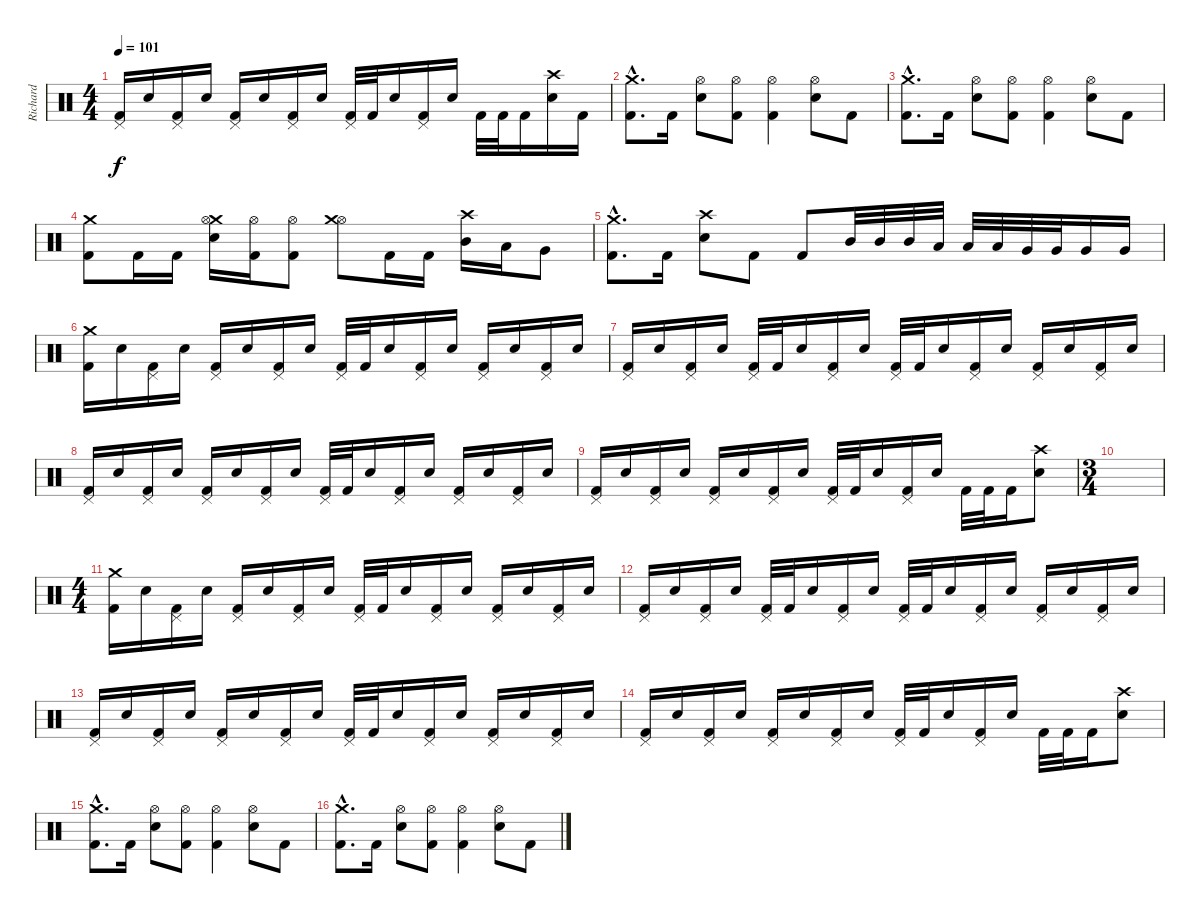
\track ("Richard" "Richard") {instrument percussion}
\staff {score}
\articulation defaults
\ts (4 4)
\tempo 101
\clef neutral
\ks c
("Pedal Hi-Hat (hit)" "Kick (hit) 2").16{dy f} "Electric Snare (hit)".16 ("Pedal Hi-Hat (hit)" "Kick (hit) 2").16 "Electric Snare (hit)".16 ("Pedal Hi-Hat (hit)" "Kick (hit) 2").16 "Electric Snare (hit)".16 ("Pedal Hi-Hat (hit)" "Kick (hit) 2").16 "Electric Snare (hit)".16 ("Pedal Hi-Hat (hit)" "Kick (hit) 2").32 "Kick (hit) 2".32 "Electric Snare (hit)".16 ("Pedal Hi-Hat (hit)" "Kick (hit) 2").16 "Electric Snare (hit)".16 "Kick (hit) 2".32 "Kick (hit) 2".32 "Kick (hit) 2".16 ("Crash high (hit)" "Electric Snare (hit)").16 "Kick (hit) 2".16 |
("Crash medium (hit)"{hac} "Kick (hit) 2"{hac}).8{d} "Kick (hit) 2".16 ("Hi-Hat (open)" "Electric Snare (hit)").8 ("Hi-Hat (open)" "Kick (hit) 2").8 ("Hi-Hat (open)" "Kick (hit) 2").4 ("Hi-Hat (open)" "Electric Snare (hit)").8 "Kick (hit) 2".8 |
("Crash medium (hit)"{hac} "Kick (hit) 2"{hac}).8{d} "Kick (hit) 2".16 ("Hi-Hat (open)" "Electric Snare (hit)").8 ("Hi-Hat (open)" "Kick (hit) 2").8 ("Hi-Hat (open)" "Kick (hit) 2").4 ("Hi-Hat (open)" "Electric Snare (hit)").8 "Kick (hit) 2".8 |
("Crash medium (hit)" "Kick (hit) 2").8 "Kick (hit) 2".16 "Kick (hit) 2".16 ("Crash medium (hit)" "Hi-Hat (open)" "Electric Snare (hit)").16 ("Hi-Hat (open)" "Kick (hit) 2").16 ("Hi-Hat (open)" "Kick (hit) 2").8 ("Hi-Hat (open)" "Crash medium (hit)").8 "Kick (hit) 2".16 "Kick (hit) 2".16 ("Crash high (hit)" "Mid Tom (hit)").16 "Low Tom (hit)".16 "Very Low Tom (hit)".8 |
("Crash medium (hit)"{hac} "Kick (hit) 2"{hac}).8{d} "Kick (hit) 2".16 ("Crash high (hit)" "Electric Snare (hit)").8 "Kick (hit) 2".8 "Kick (hit) 2".8 "Mid Tom (hit)".32 "Mid Tom (hit)".32 "Mid Tom (hit)".32 "Low Tom (hit)".32 "Low Tom (hit)".32 "Low Tom (hit)".32 "Very Low Tom (hit)".32 "Very Low Tom (hit)".32 "Very Low Tom (hit)".16 "Very Low Tom (hit)".16 |
("Crash medium (hit)" "Kick (hit) 2").16 "Electric Snare (hit)".16 ("Pedal Hi-Hat (hit)" "Kick (hit) 2").16 "Electric Snare (hit)".16 ("Pedal Hi-Hat (hit)" "Kick (hit) 2").16 "Electric Snare (hit)".16 ("Pedal Hi-Hat (hit)" "Kick (hit) 2").16 "Electric Snare (hit)".16 ("Pedal Hi-Hat (hit)" "Kick (hit) 2").32 "Kick (hit) 2".32 "Electric Snare (hit)".16 ("Pedal Hi-Hat (hit)" "Kick (hit) 2").16 "Electric Snare (hit)".16 ("Pedal Hi-Hat (hit)" "Kick (hit) 2").16 "Electric Snare (hit)".16 ("Pedal Hi-Hat (hit)" "Kick (hit) 2").16 "Electric Snare (hit)".16 |
("Pedal Hi-Hat (hit)" "Kick (hit) 2").16 "Electric Snare (hit)".16 ("Pedal Hi-Hat (hit)" "Kick (hit) 2").16 "Electric Snare (hit)".16 ("Pedal Hi-Hat (hit)" "Kick (hit) 2").32 "Kick (hit) 2".32 "Electric Snare (hit)".16 ("Pedal Hi-Hat (hit)" "Kick (hit) 2").16 "Electric Snare (hit)".16 ("Pedal Hi-Hat (hit)" "Kick (hit) 2").32 "Kick (hit) 2".32 "Electric Snare (hit)".16 ("Pedal Hi-Hat (hit)" "Kick (hit) 2").16 "Electric Snare (hit)".16 ("Pedal Hi-Hat (hit)" "Kick (hit) 2").16 "Electric Snare (hit)".16 ("Pedal Hi-Hat (hit)" "Kick (hit) 2").16 "Electric Snare (hit)".16 |
("Pedal Hi-Hat (hit)" "Kick (hit) 2").16 "Electric Snare (hit)".16 ("Pedal Hi-Hat (hit)" "Kick (hit) 2").16 "Electric Snare (hit)".16 ("Pedal Hi-Hat (hit)" "Kick (hit) 2").16 "Electric Snare (hit)".16 ("Pedal Hi-Hat (hit)" "Kick (hit) 2").16 "Electric Snare (hit)".16 ("Pedal Hi-Hat (hit)" "Kick (hit) 2").32 "Kick (hit) 2".32 "Electric Snare (hit)".16 ("Pedal Hi-Hat (hit)" "Kick (hit) 2").16 "Electric Snare (hit)".16 ("Pedal Hi-Hat (hit)" "Kick (hit) 2").16 "Electric Snare (hit)".16 ("Pedal Hi-Hat (hit)" "Kick (hit) 2").16 "Electric Snare (hit)".16 |
("Pedal Hi-Hat (hit)" "Kick (hit) 2").16 "Electric Snare (hit)".16 ("Pedal Hi-Hat (hit)" "Kick (hit) 2").16 "Electric Snare (hit)".16 ("Pedal Hi-Hat (hit)" "Kick (hit) 2").16 "Electric Snare (hit)".16 ("Pedal Hi-Hat (hit)" "Kick (hit) 2").16 "Electric Snare (hit)".16 ("Pedal Hi-Hat (hit)" "Kick (hit) 2").32 "Kick (hit) 2".32 "Electric Snare (hit)".16 ("Pedal Hi-Hat (hit)" "Kick (hit) 2").16 "Electric Snare (hit)".16 "Kick (hit) 2".32 "Kick (hit) 2".32 "Kick (hit) 2".16 ("Crash high (hit)" "Electric Snare (hit)").8 |
\ts (3 4)
|
\ts (4 4)
("Crash medium (hit)" "Kick (hit) 2").16 "Electric Snare (hit)".16 ("Pedal Hi-Hat (hit)" "Kick (hit) 2").16 "Electric Snare (hit)".16 ("Pedal Hi-Hat (hit)" "Kick (hit) 2").16 "Electric Snare (hit)".16 ("Pedal Hi-Hat (hit)" "Kick (hit) 2").16 "Electric Snare (hit)".16 ("Pedal Hi-Hat (hit)" "Kick (hit) 2").32 "Kick (hit) 2".32 "Electric Snare (hit)".16 ("Pedal Hi-Hat (hit)" "Kick (hit) 2").16 "Electric Snare (hit)".16 ("Pedal Hi-Hat (hit)" "Kick (hit) 2").16 "Electric Snare (hit)".16 ("Pedal Hi-Hat (hit)" "Kick (hit) 2").16 "Electric Snare (hit)".16 |
("Pedal Hi-Hat (hit)" "Kick (hit) 2").16 "Electric Snare (hit)".16 ("Pedal Hi-Hat (hit)" "Kick (hit) 2").16 "Electric Snare (hit)".16 ("Pedal Hi-Hat (hit)" "Kick (hit) 2").32 "Kick (hit) 2".32 "Electric Snare (hit)".16 ("Pedal Hi-Hat (hit)" "Kick (hit) 2").16 "Electric Snare (hit)".16 ("Pedal Hi-Hat (hit)" "Kick (hit) 2").32 "Kick (hit) 2".32 "Electric Snare (hit)".16 ("Pedal Hi-Hat (hit)" "Kick (hit) 2").16 "Electric Snare (hit)".16 ("Pedal Hi-Hat (hit)" "Kick (hit) 2").16 "Electric Snare (hit)".16 ("Pedal Hi-Hat (hit)" "Kick (hit) 2").16 "Electric Snare (hit)".16 |
("Pedal Hi-Hat (hit)" "Kick (hit) 2").16 "Electric Snare (hit)".16 ("Pedal Hi-Hat (hit)" "Kick (hit) 2").16 "Electric Snare (hit)".16 ("Pedal Hi-Hat (hit)" "Kick (hit) 2").16 "Electric Snare (hit)".16 ("Pedal Hi-Hat (hit)" "Kick (hit) 2").16 "Electric Snare (hit)".16 ("Pedal Hi-Hat (hit)" "Kick (hit) 2").32 "Kick (hit) 2".32 "Electric Snare (hit)".16 ("Pedal Hi-Hat (hit)" "Kick (hit) 2").16 "Electric Snare (hit)".16 ("Pedal Hi-Hat (hit)" "Kick (hit) 2").16 "Electric Snare (hit)".16 ("Pedal Hi-Hat (hit)" "Kick (hit) 2").16 "Electric Snare (hit)".16 |
("Pedal Hi-Hat (hit)" "Kick (hit) 2").16 "Electric Snare (hit)".16 ("Pedal Hi-Hat (hit)" "Kick (hit) 2").16 "Electric Snare (hit)".16 ("Pedal Hi-Hat (hit)" "Kick (hit) 2").16 "Electric Snare (hit)".16 ("Pedal Hi-Hat (hit)" "Kick (hit) 2").16 "Electric Snare (hit)".16 ("Pedal Hi-Hat (hit)" "Kick (hit) 2").32 "Kick (hit) 2".32 "Electric Snare (hit)".16 ("Pedal Hi-Hat (hit)" "Kick (hit) 2").16 "Electric Snare (hit)".16 "Kick (hit) 2".32 "Kick (hit) 2".32 "Kick (hit) 2".16 ("Crash high (hit)" "Electric Snare (hit)").8 |
("Crash medium (hit)"{hac} "Kick (hit) 2"{hac}).8{d} "Kick (hit) 2".16 ("Hi-Hat (open)" "Electric Snare (hit)").8 ("Hi-Hat (open)" "Kick (hit) 2").8 ("Hi-Hat (open)" "Kick (hit) 2").4 ("Hi-Hat (open)" "Electric Snare (hit)").8 "Kick (hit) 2".8 |
("Crash medium (hit)"{hac} "Kick (hit) 2"{hac}).8{d} "Kick (hit) 2".16 ("Hi-Hat (open)" "Electric Snare (hit)").8 ("Hi-Hat (open)" "Kick (hit) 2").8 ("Hi-Hat (open)" "Kick (hit) 2").4 ("Hi-Hat (open)" "Electric Snare (hit)").8 "Kick (hit) 2".8
